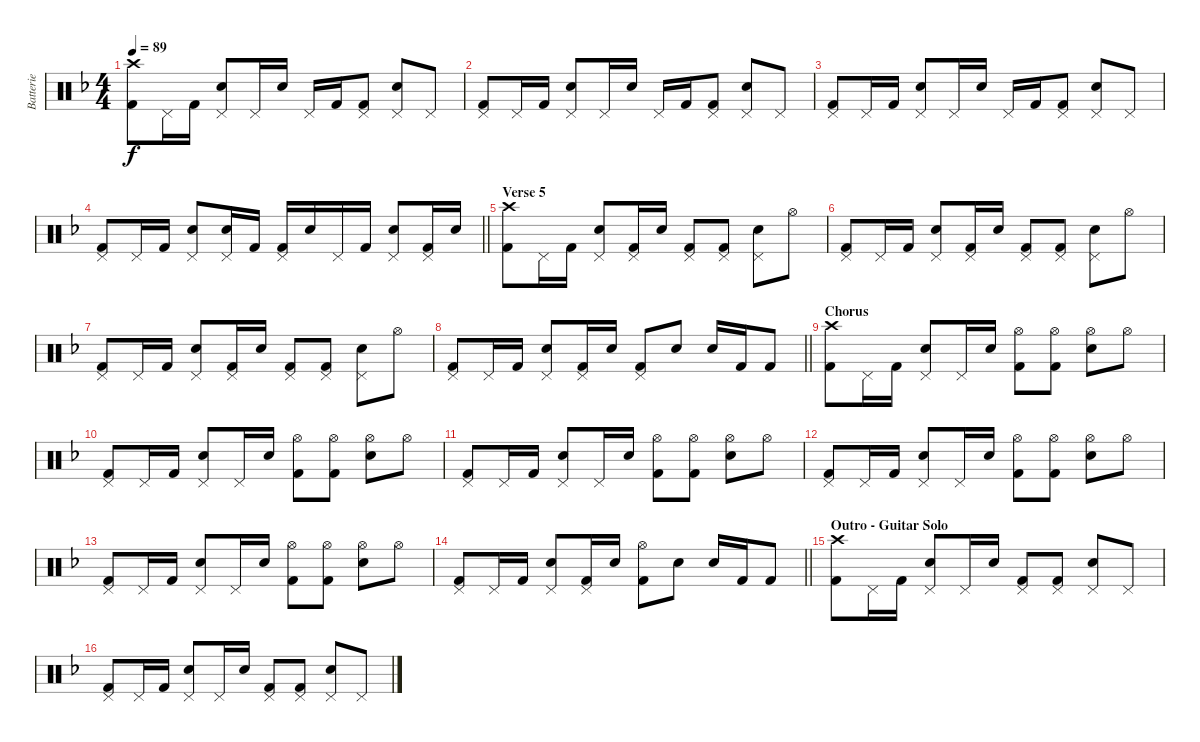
\track ("Batterie" "Batterie") {instrument percussion}
\staff {score}
\articulation defaults
\ts (4 4)
\tempo 89
\clef neutral
\ks f
("Crash high (hit)" "Kick (hit) 2").8{dy f} "Pedal Hi-Hat (hit)".16 "Kick (hit) 2".16 ("Pedal Hi-Hat (hit)" "Electric Snare (hit)").8 "Pedal Hi-Hat (hit)".16 "Electric Snare (hit)".16 "Pedal Hi-Hat (hit)".16 "Kick (hit) 2".16 ("Pedal Hi-Hat (hit)" "Kick (hit) 2").8 ("Pedal Hi-Hat (hit)" "Electric Snare (hit)").8 "Pedal Hi-Hat (hit)".8 |
("Pedal Hi-Hat (hit)" "Kick (hit) 2").8 "Pedal Hi-Hat (hit)".16 "Kick (hit) 2".16 ("Pedal Hi-Hat (hit)" "Electric Snare (hit)").8 "Pedal Hi-Hat (hit)".16 "Electric Snare (hit)".16 "Pedal Hi-Hat (hit)".16 "Kick (hit) 2".16 ("Pedal Hi-Hat (hit)" "Kick (hit) 2").8 ("Pedal Hi-Hat (hit)" "Electric Snare (hit)").8 "Pedal Hi-Hat (hit)".8 |
("Pedal Hi-Hat (hit)" "Kick (hit) 2").8 "Pedal Hi-Hat (hit)".16 "Kick (hit) 2".16 ("Pedal Hi-Hat (hit)" "Electric Snare (hit)").8 "Pedal Hi-Hat (hit)".16 "Electric Snare (hit)".16 "Pedal Hi-Hat (hit)".16 "Kick (hit) 2".16 ("Pedal Hi-Hat (hit)" "Kick (hit) 2").8 ("Pedal Hi-Hat (hit)" "Electric Snare (hit)").8 "Pedal Hi-Hat (hit)".8 |
\barLineRight lightlight
("Pedal Hi-Hat (hit)" "Kick (hit) 2").8 "Pedal Hi-Hat (hit)".16 "Kick (hit) 2".16 ("Pedal Hi-Hat (hit)" "Electric Snare (hit)").8 ("Pedal Hi-Hat (hit)" "Electric Snare (hit)").16 "Kick (hit) 2".16 ("Pedal Hi-Hat (hit)" "Kick (hit) 2").16 "Electric Snare (hit)".16 "Pedal Hi-Hat (hit)".16 "Kick (hit) 2".16 ("Pedal Hi-Hat (hit)" "Electric Snare (hit)").8 ("Pedal Hi-Hat (hit)" "Kick (hit) 2").16 "Electric Snare (hit)".16 |
\section ("" "Verse 5")
("Crash high (hit)" "Kick (hit) 2").8 "Pedal Hi-Hat (hit)".16 "Kick (hit) 2".16 ("Pedal Hi-Hat (hit)" "Electric Snare (hit)").8 ("Pedal Hi-Hat (hit)" "Kick (hit) 2").16 "Electric Snare (hit)".16 ("Pedal Hi-Hat (hit)" "Kick (hit) 2").8 ("Pedal Hi-Hat (hit)" "Kick (hit) 2").8 ("Pedal Hi-Hat (hit)" "Electric Snare (hit)").8 "Hi-Hat (open)".8 |
("Pedal Hi-Hat (hit)" "Kick (hit) 2").8 "Pedal Hi-Hat (hit)".16 "Kick (hit) 2".16 ("Pedal Hi-Hat (hit)" "Electric Snare (hit)").8 ("Pedal Hi-Hat (hit)" "Kick (hit) 2").16 "Electric Snare (hit)".16 ("Pedal Hi-Hat (hit)" "Kick (hit) 2").8 ("Pedal Hi-Hat (hit)" "Kick (hit) 2").8 ("Pedal Hi-Hat (hit)" "Electric Snare (hit)").8 "Hi-Hat (open)".8 |
("Pedal Hi-Hat (hit)" "Kick (hit) 2").8 "Pedal Hi-Hat (hit)".16 "Kick (hit) 2".16 ("Pedal Hi-Hat (hit)" "Electric Snare (hit)").8 ("Pedal Hi-Hat (hit)" "Kick (hit) 2").16 "Electric Snare (hit)".16 ("Pedal Hi-Hat (hit)" "Kick (hit) 2").8 ("Pedal Hi-Hat (hit)" "Kick (hit) 2").8 ("Pedal Hi-Hat (hit)" "Electric Snare (hit)").8 "Hi-Hat (open)".8 |
\barLineRight lightlight
("Pedal Hi-Hat (hit)" "Kick (hit) 2").8 "Pedal Hi-Hat (hit)".16 "Kick (hit) 2".16 ("Pedal Hi-Hat (hit)" "Electric Snare (hit)").8 ("Pedal Hi-Hat (hit)" "Kick (hit) 2").16 "Electric Snare (hit)".16 ("Pedal Hi-Hat (hit)" "Kick (hit) 2").8 "Electric Snare (hit)".8 "Electric Snare (hit)".16 "Kick (hit) 2".16 "Kick (hit) 2".8 |
\section ("" "Chorus")
("Crash high (hit)" "Kick (hit) 2").8 "Pedal Hi-Hat (hit)".16 "Kick (hit) 2".16 ("Pedal Hi-Hat (hit)" "Electric Snare (hit)").8 "Pedal Hi-Hat (hit)".16 "Electric Snare (hit)".16 ("Hi-Hat (open)" "Kick (hit) 2").8 ("Hi-Hat (open)" "Kick (hit) 2").8 ("Hi-Hat (open)" "Electric Snare (hit)").8 "Hi-Hat (open)".8 |
("Pedal Hi-Hat (hit)" "Kick (hit) 2").8 "Pedal Hi-Hat (hit)".16 "Kick (hit) 2".16 ("Pedal Hi-Hat (hit)" "Electric Snare (hit)").8 "Pedal Hi-Hat (hit)".16 "Electric Snare (hit)".16 ("Hi-Hat (open)" "Kick (hit) 2").8 ("Hi-Hat (open)" "Kick (hit) 2").8 ("Hi-Hat (open)" "Electric Snare (hit)").8 "Hi-Hat (open)".8 |
("Pedal Hi-Hat (hit)" "Kick (hit) 2").8 "Pedal Hi-Hat (hit)".16 "Kick (hit) 2".16 ("Pedal Hi-Hat (hit)" "Electric Snare (hit)").8 "Pedal Hi-Hat (hit)".16 "Electric Snare (hit)".16 ("Hi-Hat (open)" "Kick (hit) 2").8 ("Hi-Hat (open)" "Kick (hit) 2").8 ("Hi-Hat (open)" "Electric Snare (hit)").8 "Hi-Hat (open)".8 |
("Pedal Hi-Hat (hit)" "Kick (hit) 2").8 "Pedal Hi-Hat (hit)".16 "Kick (hit) 2".16 ("Pedal Hi-Hat (hit)" "Electric Snare (hit)").8 "Pedal Hi-Hat (hit)".16 "Electric Snare (hit)".16 ("Hi-Hat (open)" "Kick (hit) 2").8 ("Hi-Hat (open)" "Kick (hit) 2").8 ("Hi-Hat (open)" "Electric Snare (hit)").8 "Hi-Hat (open)".8 |
("Pedal Hi-Hat (hit)" "Kick (hit) 2").8 "Pedal Hi-Hat (hit)".16 "Kick (hit) 2".16 ("Pedal Hi-Hat (hit)" "Electric Snare (hit)").8 "Pedal Hi-Hat (hit)".16 "Electric Snare (hit)".16 ("Hi-Hat (open)" "Kick (hit) 2").8 ("Hi-Hat (open)" "Kick (hit) 2").8 ("Hi-Hat (open)" "Electric Snare (hit)").8 "Hi-Hat (open)".8 |
\barLineRight lightlight
("Pedal Hi-Hat (hit)" "Kick (hit) 2").8 "Pedal Hi-Hat (hit)".16 "Kick (hit) 2".16 ("Pedal Hi-Hat (hit)" "Electric Snare (hit)").8 ("Pedal Hi-Hat (hit)" "Kick (hit) 2").16 "Electric Snare (hit)".16 ("Hi-Hat (open)" "Kick (hit) 2").8 "Electric Snare (hit)".8 "Electric Snare (hit)".16 "Kick (hit) 2".16 "Kick (hit) 2".8 |
\section ("" "Outro - Guitar Solo")
("Crash high (hit)" "Kick (hit) 2").8 "Pedal Hi-Hat (hit)".16 "Kick (hit) 2".16 ("Pedal Hi-Hat (hit)" "Electric Snare (hit)").8 "Pedal Hi-Hat (hit)".16 "Electric Snare (hit)".16 ("Pedal Hi-Hat (hit)" "Kick (hit) 2").8 ("Pedal Hi-Hat (hit)" "Kick (hit) 2").8 ("Pedal Hi-Hat (hit)" "Electric Snare (hit)").8 "Pedal Hi-Hat (hit)".8 |
("Pedal Hi-Hat (hit)" "Kick (hit) 2").8 "Pedal Hi-Hat (hit)".16 "Kick (hit) 2".16 ("Pedal Hi-Hat (hit)" "Electric Snare (hit)").8 "Pedal Hi-Hat (hit)".16 "Electric Snare (hit)".16 ("Pedal Hi-Hat (hit)" "Kick (hit) 2").8 ("Pedal Hi-Hat (hit)" "Kick (hit) 2").8 ("Pedal Hi-Hat (hit)" "Electric Snare (hit)").8 "Pedal Hi-Hat (hit)".8
